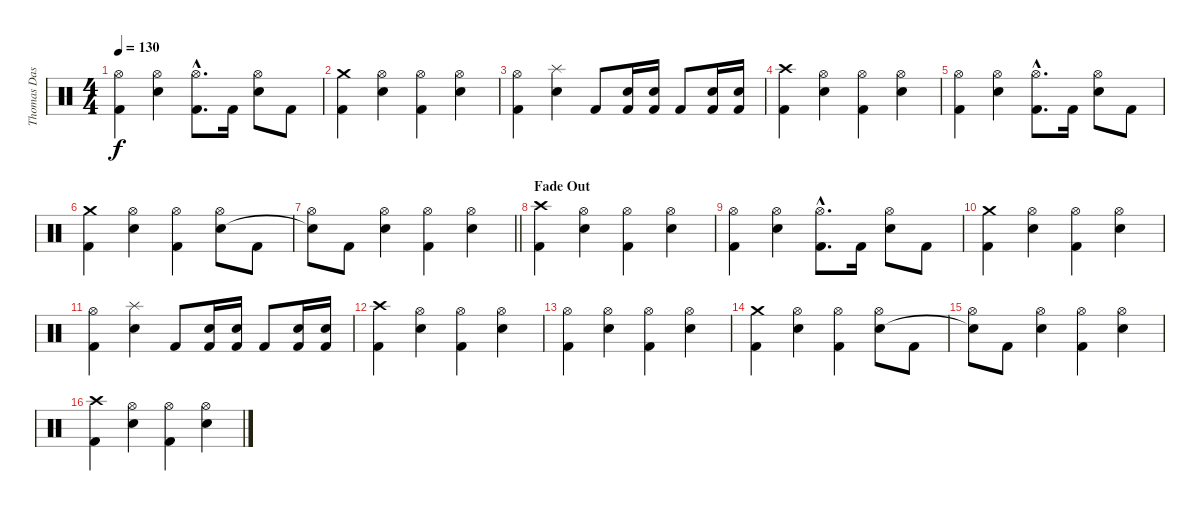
\track ("Thomas Das Neves (Drums)" "Thomas Das") {instrument percussion}
\staff {score}
\articulation defaults
\ts (4 4)
\tempo 130
\clef neutral
\ks c
("Hi-Hat (open)" "Kick (hit) 2").4{dy f} ("Hi-Hat (open)" "Snare (hit) 2").4 ("Hi-Hat (open)"{hac} "Kick (hit) 2"{hac}).8{d} "Kick (hit) 2".16 ("Hi-Hat (open)" "Snare (hit) 2").8 "Kick (hit) 2".8 |
("Crash medium (hit)" "Kick (hit) 2").4 ("Hi-Hat (open)" "Snare (hit) 2").4 ("Hi-Hat (open)" "Kick (hit) 2").4 ("Hi-Hat (open)" "Snare (hit) 2").4 |
("Hi-Hat (open)" "Kick (hit) 2").4 ("Splash (hit)" "Snare (hit) 2").4 "Kick (hit) 2".8 ("Snare (hit) 2" "Kick (hit) 2").16 ("Snare (hit) 2" "Kick (hit) 2").16 "Kick (hit) 2".8 ("Snare (hit) 2" "Kick (hit) 2").16 ("Snare (hit) 2" "Kick (hit) 2").16 |
("Crash high (hit)" "Kick (hit) 2").4 ("Hi-Hat (open)" "Snare (hit) 2").4 ("Hi-Hat (open)" "Kick (hit) 2").4 ("Hi-Hat (open)" "Snare (hit) 2").4 |
("Hi-Hat (open)" "Kick (hit) 2").4 ("Hi-Hat (open)" "Snare (hit) 2").4 ("Hi-Hat (open)"{hac} "Kick (hit) 2"{hac}).8{d} "Kick (hit) 2".16 ("Hi-Hat (open)" "Snare (hit) 2").8 "Kick (hit) 2".8 |
("Crash medium (hit)" "Kick (hit) 2").4 ("Hi-Hat (open)" "Snare (hit) 2").4 ("Hi-Hat (open)" "Kick (hit) 2").4 ("Hi-Hat (open)" "Snare (hit) 2").8 "Kick (hit) 2".8 |
\barLineRight lightlight
("Hi-Hat (open)" "Snare (hit)"{t}).8 "Kick (hit) 2".8 ("Hi-Hat (open)" "Snare (hit) 2").4 ("Hi-Hat (open)" "Kick (hit) 2").4 ("Hi-Hat (open)" "Snare (hit) 2").4 |
\section ("" "Fade Out")
("Crash high (hit)" "Kick (hit) 2").4 ("Hi-Hat (open)" "Snare (hit) 2").4 ("Hi-Hat (open)" "Kick (hit) 2").4 ("Hi-Hat (open)" "Snare (hit) 2").4 |
("Hi-Hat (open)" "Kick (hit) 2").4 ("Hi-Hat (open)" "Snare (hit) 2").4 ("Hi-Hat (open)"{hac} "Kick (hit) 2"{hac}).8{d} "Kick (hit) 2".16 ("Hi-Hat (open)" "Snare (hit) 2").8 "Kick (hit) 2".8 |
("Crash medium (hit)" "Kick (hit) 2").4{volume 12} ("Hi-Hat (open)" "Snare (hit) 2").4 ("Hi-Hat (open)" "Kick (hit) 2").4 ("Hi-Hat (open)" "Snare (hit) 2").4 |
("Hi-Hat (open)" "Kick (hit) 2").4{volume 12} ("Splash (hit)" "Snare (hit) 2").4 "Kick (hit) 2".8 ("Snare (hit) 2" "Kick (hit) 2").16 ("Snare (hit) 2" "Kick (hit) 2").16 "Kick (hit) 2".8 ("Snare (hit) 2" "Kick (hit) 2").16 ("Snare (hit) 2" "Kick (hit) 2").16 |
("Crash high (hit)" "Kick (hit) 2").4{volume 11} ("Hi-Hat (open)" "Snare (hit) 2").4 ("Hi-Hat (open)" "Kick (hit) 2").4 ("Hi-Hat (open)" "Snare (hit) 2").4 |
("Hi-Hat (open)" "Kick (hit) 2").4{volume 11} ("Hi-Hat (open)" "Snare (hit) 2").4 ("Hi-Hat (open)" "Kick (hit) 2").4 ("Hi-Hat (open)" "Snare (hit) 2").4 |
("Crash medium (hit)" "Kick (hit) 2").4{volume 10} ("Hi-Hat (open)" "Snare (hit) 2").4 ("Hi-Hat (open)" "Kick (hit) 2").4 ("Hi-Hat (open)" "Snare (hit) 2").8 "Kick (hit) 2".8 |
("Hi-Hat (open)" "Snare (hit)"{t}).8{volume 10} "Kick (hit) 2".8 ("Hi-Hat (open)" "Snare (hit) 2").4 ("Hi-Hat (open)" "Kick (hit) 2").4 ("Hi-Hat (open)" "Snare (hit) 2").4 |
("Crash high (hit)" "Kick (hit) 2").4{volume 9} ("Hi-Hat (open)" "Snare (hit) 2").4 ("Hi-Hat (open)" "Kick (hit) 2").4 ("Hi-Hat (open)" "Snare (hit) 2").4
